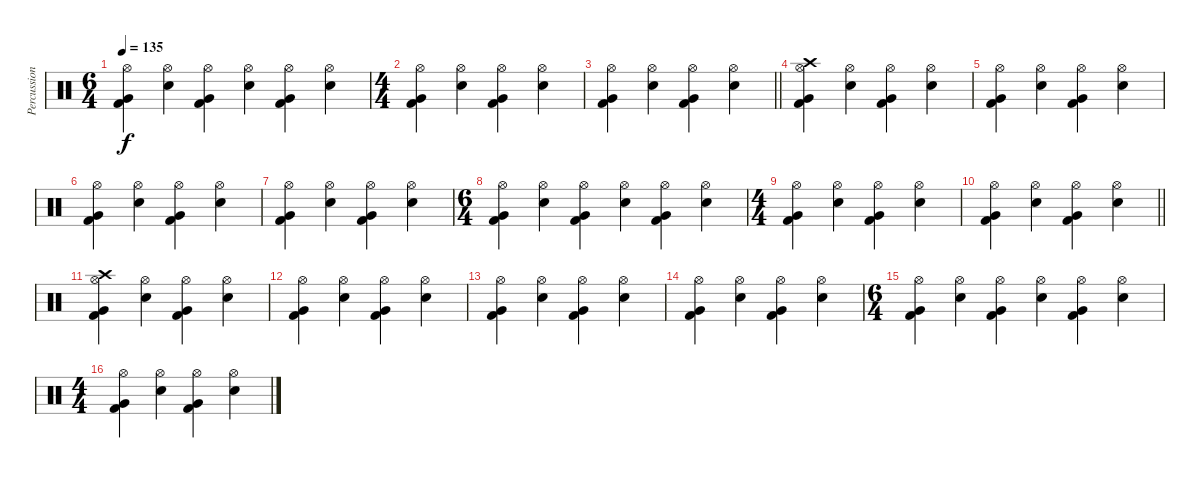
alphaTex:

\track ("Percussion" "Percussion") {instrument percussion}
\staff {score}
\articulation defaults
\ts (6 4)
\tempo 135
\clef neutral
\ks c
("Hi-Hat (open)" "Very Low Tom (hit)" "Kick (hit) 2").4{dy f} ("Hi-Hat (open)" "Electric Snare (hit)").4 ("Hi-Hat (open)" "Very Low Tom (hit)" "Kick (hit) 2").4 ("Hi-Hat (open)" "Electric Snare (hit)").4 ("Hi-Hat (open)" "Very Low Tom (hit)" "Kick (hit) 2").4 ("Hi-Hat (open)" "Electric Snare (hit)").4 |
\ts (4 4)
("Hi-Hat (open)" "Very Low Tom (hit)" "Kick (hit) 2").4 ("Hi-Hat (open)" "Electric Snare (hit)").4 ("Hi-Hat (open)" "Very Low Tom (hit)" "Kick (hit) 2").4 ("Hi-Hat (open)" "Electric Snare (hit)").4 |
\barLineRight lightlight
("Hi-Hat (open)" "Very Low Tom (hit)" "Kick (hit) 2").4 ("Hi-Hat (open)" "Electric Snare (hit)").4 ("Hi-Hat (open)" "Very Low Tom (hit)" "Kick (hit) 2").4 ("Hi-Hat (open)" "Electric Snare (hit)").4 |
("Hi-Hat (open)" "Crash high (hit)" "Very Low Tom (hit)" "Kick (hit) 2").4 ("Hi-Hat (open)" "Electric Snare (hit)").4 ("Hi-Hat (open)" "Very Low Tom (hit)" "Kick (hit) 2").4 ("Hi-Hat (open)" "Electric Snare (hit)").4 |
("Hi-Hat (open)" "Very Low Tom (hit)" "Kick (hit) 2").4 ("Hi-Hat (open)" "Electric Snare (hit)").4 ("Hi-Hat (open)" "Very Low Tom (hit)" "Kick (hit) 2").4 ("Hi-Hat (open)" "Electric Snare (hit)").4 |
("Hi-Hat (open)" "Very Low Tom (hit)" "Kick (hit) 2").4 ("Hi-Hat (open)" "Electric Snare (hit)").4 ("Hi-Hat (open)" "Very Low Tom (hit)" "Kick (hit) 2").4 ("Hi-Hat (open)" "Electric Snare (hit)").4 |
("Hi-Hat (open)" "Very Low Tom (hit)" "Kick (hit) 2").4 ("Hi-Hat (open)" "Electric Snare (hit)").4 ("Hi-Hat (open)" "Very Low Tom (hit)" "Kick (hit) 2").4 ("Hi-Hat (open)" "Electric Snare (hit)").4 |
\ts (6 4)
("Hi-Hat (open)" "Very Low Tom (hit)" "Kick (hit) 2").4 ("Hi-Hat (open)" "Electric Snare (hit)").4 ("Hi-Hat (open)" "Very Low Tom (hit)" "Kick (hit) 2").4 ("Hi-Hat (open)" "Electric Snare (hit)").4 ("Hi-Hat (open)" "Very Low Tom (hit)" "Kick (hit) 2").4 ("Hi-Hat (open)" "Electric Snare (hit)").4 |
\ts (4 4)
("Hi-Hat (open)" "Very Low Tom (hit)" "Kick (hit) 2").4 ("Hi-Hat (open)" "Electric Snare (hit)").4 ("Hi-Hat (open)" "Very Low Tom (hit)" "Kick (hit) 2").4 ("Hi-Hat (open)" "Electric Snare (hit)").4 |
\barLineRight lightlight
("Hi-Hat (open)" "Very Low Tom (hit)" "Kick (hit) 2").4 ("Hi-Hat (open)" "Electric Snare (hit)").4 ("Hi-Hat (open)" "Very Low Tom (hit)" "Kick (hit) 2").4 ("Hi-Hat (open)" "Electric Snare (hit)").4 |
("Hi-Hat (open)" "Crash high (hit)" "Very Low Tom (hit)" "Kick (hit) 2").4{volume 9} ("Hi-Hat (open)" "Electric Snare (hit)").4 ("Hi-Hat (open)" "Very Low Tom (hit)" "Kick (hit) 2").4 ("Hi-Hat (open)" "Electric Snare (hit)").4 |
("Hi-Hat (open)" "Very Low Tom (hit)" "Kick (hit) 2").4 ("Hi-Hat (open)" "Electric Snare (hit)").4 ("Hi-Hat (open)" "Very Low Tom (hit)" "Kick (hit) 2").4 ("Hi-Hat (open)" "Electric Snare (hit)").4 |
("Hi-Hat (open)" "Very Low Tom (hit)" "Kick (hit) 2").4 ("Hi-Hat (open)" "Electric Snare (hit)").4 ("Hi-Hat (open)" "Very Low Tom (hit)" "Kick (hit) 2").4 ("Hi-Hat (open)" "Electric Snare (hit)").4 |
("Hi-Hat (open)" "Very Low Tom (hit)" "Kick (hit) 2").4 ("Hi-Hat (open)" "Electric Snare (hit)").4 ("Hi-Hat (open)" "Very Low Tom (hit)" "Kick (hit) 2").4 ("Hi-Hat (open)" "Electric Snare (hit)").4 |
\ts (6 4)
("Hi-Hat (open)" "Very Low Tom (hit)" "Kick (hit) 2").4{volume 5} ("Hi-Hat (open)" "Electric Snare (hit)").4 ("Hi-Hat (open)" "Very Low Tom (hit)" "Kick (hit) 2").4 ("Hi-Hat (open)" "Electric Snare (hit)").4 ("Hi-Hat (open)" "Very Low Tom (hit)" "Kick (hit) 2").4 ("Hi-Hat (open)" "Electric Snare (hit)").4 |
\ts (4 4)
("Hi-Hat (open)" "Very Low Tom (hit)" "Kick (hit) 2").4 ("Hi-Hat (open)" "Electric Snare (hit)").4 ("Hi-Hat (open)" "Very Low Tom (hit)" "Kick (hit) 2").4 ("Hi-Hat (open)" "Electric Snare (hit)").4
